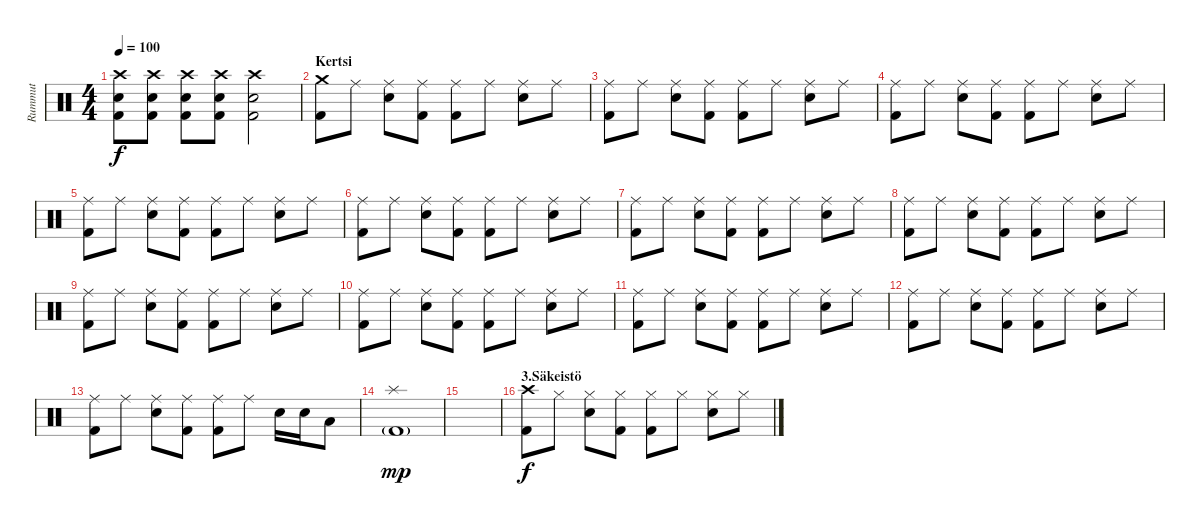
\track ("Rummut" "Rummut") {instrument percussion}
\staff {score}
\articulation defaults
\ts (4 4)
\tempo 100
\clef neutral
\ks c
("Crash high (hit)" "Snare (hit) 2" "Kick (hit) 2").8{dy f} ("Crash high (hit)" "Snare (hit) 2" "Kick (hit) 2").8 ("Crash high (hit)" "Snare (hit) 2" "Kick (hit) 2").8 ("Crash high (hit)" "Snare (hit) 2" "Kick (hit) 2").8 ("Crash high (hit)" "Snare (hit) 2" "Kick (hit) 2").2 |
\section ("" "Kertsi")
("Crash medium (hit)" "Kick (hit) 2").8 "Ride (middle)".8 ("Ride (middle)" "Snare (hit) 2").8 ("Ride (middle)" "Kick (hit) 2").8 ("Ride (middle)" "Kick (hit) 2").8 "Ride (middle)".8 ("Ride (middle)" "Snare (hit) 2").8 "Ride (middle)".8 |
("Ride (middle)" "Kick (hit) 2").8 "Ride (middle)".8 ("Ride (middle)" "Snare (hit) 2").8 ("Ride (middle)" "Kick (hit) 2").8 ("Ride (middle)" "Kick (hit) 2").8 "Ride (middle)".8 ("Ride (middle)" "Snare (hit) 2").8 "Ride (middle)".8 |
("Ride (middle)" "Kick (hit) 2").8 "Ride (middle)".8 ("Ride (middle)" "Snare (hit) 2").8 ("Ride (middle)" "Kick (hit) 2").8 ("Ride (middle)" "Kick (hit) 2").8 "Ride (middle)".8 ("Ride (middle)" "Snare (hit) 2").8 "Ride (middle)".8 |
("Ride (middle)" "Kick (hit) 2").8 "Ride (middle)".8 ("Ride (middle)" "Snare (hit) 2").8 ("Ride (middle)" "Kick (hit) 2").8 ("Ride (middle)" "Kick (hit) 2").8 "Ride (middle)".8 ("Ride (middle)" "Snare (hit) 2").8 "Ride (middle)".8 |
("Ride (middle)" "Kick (hit) 2").8 "Ride (middle)".8 ("Ride (middle)" "Snare (hit) 2").8 ("Ride (middle)" "Kick (hit) 2").8 ("Ride (middle)" "Kick (hit) 2").8 "Ride (middle)".8 ("Ride (middle)" "Snare (hit) 2").8 "Ride (middle)".8 |
("Ride (middle)" "Kick (hit) 2").8 "Ride (middle)".8 ("Ride (middle)" "Snare (hit) 2").8 ("Ride (middle)" "Kick (hit) 2").8 ("Ride (middle)" "Kick (hit) 2").8 "Ride (middle)".8 ("Ride (middle)" "Snare (hit) 2").8 "Ride (middle)".8 |
("Ride (middle)" "Kick (hit) 2").8 "Ride (middle)".8 ("Ride (middle)" "Snare (hit) 2").8 ("Ride (middle)" "Kick (hit) 2").8 ("Ride (middle)" "Kick (hit) 2").8 "Ride (middle)".8 ("Ride (middle)" "Snare (hit) 2").8 "Ride (middle)".8 |
("Ride (middle)" "Kick (hit) 2").8 "Ride (middle)".8 ("Ride (middle)" "Snare (hit) 2").8 ("Ride (middle)" "Kick (hit) 2").8 ("Ride (middle)" "Kick (hit) 2").8 "Ride (middle)".8 ("Ride (middle)" "Snare (hit) 2").8 "Ride (middle)".8 |
("Ride (middle)" "Kick (hit) 2").8 "Ride (middle)".8 ("Ride (middle)" "Snare (hit) 2").8 ("Ride (middle)" "Kick (hit) 2").8 ("Ride (middle)" "Kick (hit) 2").8 "Ride (middle)".8 ("Ride (middle)" "Snare (hit) 2").8 "Ride (middle)".8 |
("Ride (middle)" "Kick (hit) 2").8 "Ride (middle)".8 ("Ride (middle)" "Snare (hit) 2").8 ("Ride (middle)" "Kick (hit) 2").8 ("Ride (middle)" "Kick (hit) 2").8 "Ride (middle)".8 ("Ride (middle)" "Snare (hit) 2").8 "Ride (middle)".8 |
("Ride (middle)" "Kick (hit) 2").8 "Ride (middle)".8 ("Ride (middle)" "Snare (hit) 2").8 ("Ride (middle)" "Kick (hit) 2").8 ("Ride (middle)" "Kick (hit) 2").8 "Ride (middle)".8 ("Ride (middle)" "Snare (hit) 2").8 "Ride (middle)".8 |
("Ride (middle)" "Kick (hit) 2").8 "Ride (middle)".8 ("Ride (middle)" "Snare (hit) 2").8 ("Ride (middle)" "Kick (hit) 2").8 ("Ride (middle)" "Kick (hit) 2").8 "Ride (middle)".8 "Snare (hit) 2".16 "Snare (hit) 2".16 "Low Tom (hit)".8 |
("Splash (hit)" "Kick (hit) 2"{g}).1{dy mp} |
|
\section ("" "3.Säkeistö")
("Crash high (hit)" "Kick (hit) 2").8{dy f} "Hi-Hat (closed)".8 ("Hi-Hat (closed)" "Snare (hit) 2").8 ("Hi-Hat (closed)" "Kick (hit) 2").8 ("Hi-Hat (closed)" "Kick (hit) 2").8 "Hi-Hat (closed)".8 ("Hi-Hat (closed)" "Snare (hit) 2").8 "Hi-Hat (closed)".8
